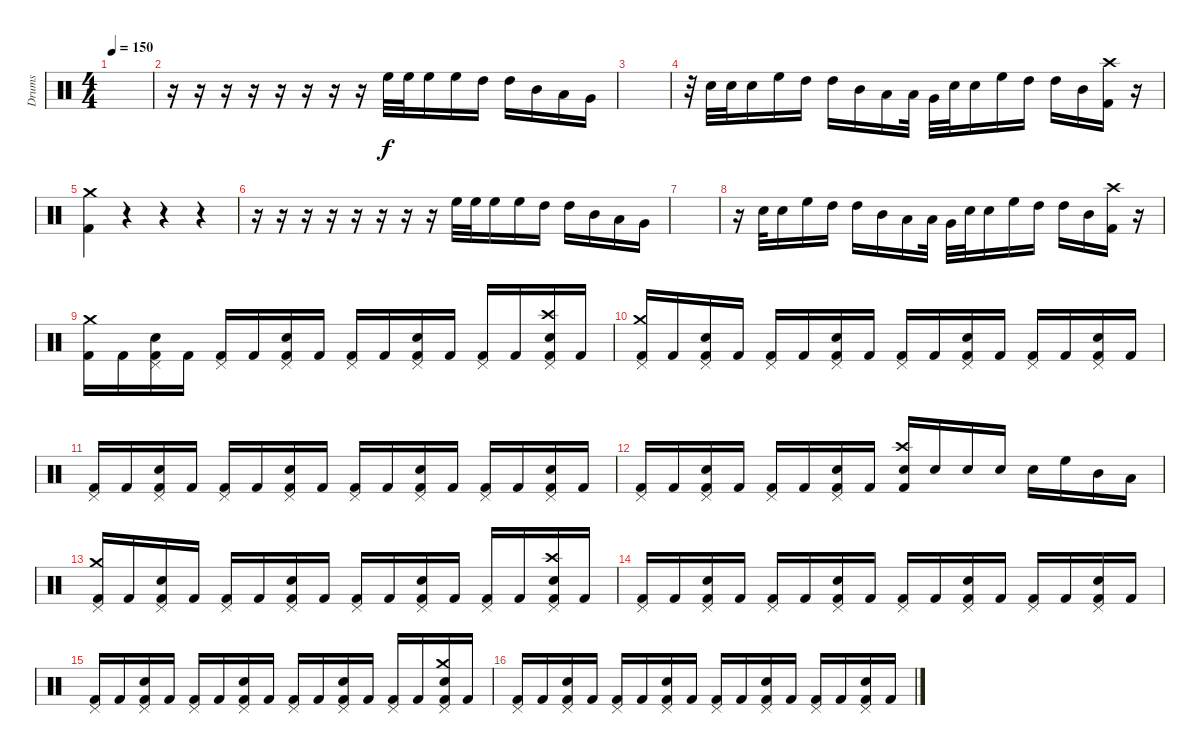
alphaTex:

\track ("Drums" "Drums") {instrument percussion}
\staff {score}
\articulation defaults
\ts (4 4)
\tempo 150
\clef neutral
\ks c
|
r.16 r.16 r.16 r.16 r.16 r.16 r.16 r.16 "High Floor Tom (hit)".32 "High Floor Tom (hit)".32 "High Floor Tom (hit)".16 "High Floor Tom (hit)".16 "High Tom (hit)".16 "High Tom (hit)".16 "Mid Tom (hit)".16 "Low Tom (hit)".16 "Very Low Tom (hit)".16 |
|
r.32 "Electric Snare (hit)".32 "Electric Snare (hit)".32 "Electric Snare (hit)".16 "High Floor Tom (hit)".16 "High Tom (hit)".16 "High Tom (hit)".16 "Mid Tom (hit)".16 "Low Tom (hit)".16 "Low Tom (hit)".32 "Very Low Tom (hit)".32 "Electric Snare (hit)".32 "Electric Snare (hit)".16 "High Floor Tom (hit)".16 "High Tom (hit)".16 "High Tom (hit)".16 "Mid Tom (hit)".16 ("Crash high (hit)" "Kick (hit) 2").16 r.16 |
("Crash medium (hit)" "Kick (hit) 2").4 r.4 r.4 r.4 |
r.16 r.16 r.16 r.16 r.16 r.16 r.16 r.16 "High Floor Tom (hit)".32 "High Floor Tom (hit)".32 "High Floor Tom (hit)".16 "High Floor Tom (hit)".16 "High Tom (hit)".16 "High Tom (hit)".16 "Mid Tom (hit)".16 "Low Tom (hit)".16 "Very Low Tom (hit)".16 |
|
r.16 "Electric Snare (hit)".32 "Electric Snare (hit)".16 "High Floor Tom (hit)".16 "High Tom (hit)".16 "High Tom (hit)".16 "Mid Tom (hit)".16 "Low Tom (hit)".16 "Low Tom (hit)".32 "Very Low Tom (hit)".32 "Electric Snare (hit)".32 "Electric Snare (hit)".16 "High Floor Tom (hit)".16 "High Tom (hit)".16 "High Tom (hit)".16 "Mid Tom (hit)".16 ("Crash high (hit)" "Kick (hit) 2").16 r.16 |
("Crash medium (hit)" "Kick (hit) 2").16 "Kick (hit) 2".16 ("Pedal Hi-Hat (hit)" "Kick (hit) 2" "Electric Snare (hit)").16 "Kick (hit) 2".16 ("Pedal Hi-Hat (hit)" "Kick (hit) 2").16 "Kick (hit) 2".16 ("Pedal Hi-Hat (hit)" "Kick (hit) 2" "Electric Snare (hit)").16 "Kick (hit) 2".16 ("Pedal Hi-Hat (hit)" "Kick (hit) 2").16 "Kick (hit) 2".16 ("Pedal Hi-Hat (hit)" "Kick (hit) 2" "Electric Snare (hit)").16 "Kick (hit) 2".16 ("Pedal Hi-Hat (hit)" "Kick (hit) 2").16 "Kick (hit) 2".16 ("Crash high (hit)" "Pedal Hi-Hat (hit)" "Kick (hit) 2" "Electric Snare (hit)").16 "Kick (hit) 2".16 |
("Crash medium (hit)" "Pedal Hi-Hat (hit)" "Kick (hit) 2").16 "Kick (hit) 2".16 ("Pedal Hi-Hat (hit)" "Kick (hit) 2" "Electric Snare (hit)").16 "Kick (hit) 2".16 ("Pedal Hi-Hat (hit)" "Kick (hit) 2").16 "Kick (hit) 2".16 ("Pedal Hi-Hat (hit)" "Kick (hit) 2" "Electric Snare (hit)").16 "Kick (hit) 2".16 ("Pedal Hi-Hat (hit)" "Kick (hit) 2").16 "Kick (hit) 2".16 ("Pedal Hi-Hat (hit)" "Kick (hit) 2" "Electric Snare (hit)").16 "Kick (hit) 2".16 ("Pedal Hi-Hat (hit)" "Kick (hit) 2").16 "Kick (hit) 2".16 ("Pedal Hi-Hat (hit)" "Kick (hit) 2" "Electric Snare (hit)").16 "Kick (hit) 2".16 |
("Pedal Hi-Hat (hit)" "Kick (hit) 2").16 "Kick (hit) 2".16 ("Pedal Hi-Hat (hit)" "Kick (hit) 2" "Electric Snare (hit)").16 "Kick (hit) 2".16 ("Pedal Hi-Hat (hit)" "Kick (hit) 2").16 "Kick (hit) 2".16 ("Pedal Hi-Hat (hit)" "Kick (hit) 2" "Electric Snare (hit)").16 "Kick (hit) 2".16 ("Pedal Hi-Hat (hit)" "Kick (hit) 2").16 "Kick (hit) 2".16 ("Pedal Hi-Hat (hit)" "Kick (hit) 2" "Electric Snare (hit)").16 "Kick (hit) 2".16 ("Pedal Hi-Hat (hit)" "Kick (hit) 2").16 "Kick (hit) 2".16 ("Pedal Hi-Hat (hit)" "Kick (hit) 2" "Electric Snare (hit)").16 "Kick (hit) 2".16 |
("Pedal Hi-Hat (hit)" "Kick (hit) 2").16 "Kick (hit) 2".16 ("Pedal Hi-Hat (hit)" "Kick (hit) 2" "Electric Snare (hit)").16 "Kick (hit) 2".16 ("Pedal Hi-Hat (hit)" "Kick (hit) 2").16 "Kick (hit) 2".16 ("Pedal Hi-Hat (hit)" "Kick (hit) 2" "Electric Snare (hit)").16 "Kick (hit) 2".16 ("Crash high (hit)" "Kick (hit) 2" "Electric Snare (hit)").16 "Electric Snare (hit)".16 "Electric Snare (hit)".16 "Electric Snare (hit)".16 "Electric Snare (hit)".16 "High Floor Tom (hit)".16 "Mid Tom (hit)".16 "Low Tom (hit)".16 |
("Crash medium (hit)" "Pedal Hi-Hat (hit)" "Kick (hit) 2").16 "Kick (hit) 2".16 ("Pedal Hi-Hat (hit)" "Kick (hit) 2" "Electric Snare (hit)").16 "Kick (hit) 2".16 ("Pedal Hi-Hat (hit)" "Kick (hit) 2").16 "Kick (hit) 2".16 ("Pedal Hi-Hat (hit)" "Kick (hit) 2" "Electric Snare (hit)").16 "Kick (hit) 2".16 ("Pedal Hi-Hat (hit)" "Kick (hit) 2").16 "Kick (hit) 2".16 ("Pedal Hi-Hat (hit)" "Kick (hit) 2" "Electric Snare (hit)").16 "Kick (hit) 2".16 ("Pedal Hi-Hat (hit)" "Kick (hit) 2").16 "Kick (hit) 2".16 ("Crash high (hit)" "Pedal Hi-Hat (hit)" "Kick (hit) 2" "Electric Snare (hit)").16 "Kick (hit) 2".16 |
("Pedal Hi-Hat (hit)" "Kick (hit) 2").16 "Kick (hit) 2".16 ("Pedal Hi-Hat (hit)" "Kick (hit) 2" "Electric Snare (hit)").16 "Kick (hit) 2".16 ("Pedal Hi-Hat (hit)" "Kick (hit) 2").16 "Kick (hit) 2".16 ("Pedal Hi-Hat (hit)" "Kick (hit) 2" "Electric Snare (hit)").16 "Kick (hit) 2".16 ("Pedal Hi-Hat (hit)" "Kick (hit) 2").16 "Kick (hit) 2".16 ("Pedal Hi-Hat (hit)" "Kick (hit) 2" "Electric Snare (hit)").16 "Kick (hit) 2".16 ("Pedal Hi-Hat (hit)" "Kick (hit) 2").16 "Kick (hit) 2".16 ("Pedal Hi-Hat (hit)" "Kick (hit) 2" "Electric Snare (hit)").16 "Kick (hit) 2".16 |
("Pedal Hi-Hat (hit)" "Kick (hit) 2").16 "Kick (hit) 2".16 ("Pedal Hi-Hat (hit)" "Kick (hit) 2" "Electric Snare (hit)").16 "Kick (hit) 2".16 ("Pedal Hi-Hat (hit)" "Kick (hit) 2").16 "Kick (hit) 2".16 ("Pedal Hi-Hat (hit)" "Kick (hit) 2" "Electric Snare (hit)").16 "Kick (hit) 2".16 ("Pedal Hi-Hat (hit)" "Kick (hit) 2").16 "Kick (hit) 2".16 ("Pedal Hi-Hat (hit)" "Kick (hit) 2" "Electric Snare (hit)").16 "Kick (hit) 2".16 ("Pedal Hi-Hat (hit)" "Kick (hit) 2").16 "Kick (hit) 2".16 ("Crash medium (hit)" "Pedal Hi-Hat (hit)" "Kick (hit) 2" "Electric Snare (hit)").16 "Kick (hit) 2".16 |
("Pedal Hi-Hat (hit)" "Kick (hit) 2").16 "Kick (hit) 2".16 ("Pedal Hi-Hat (hit)" "Kick (hit) 2" "Electric Snare (hit)").16 "Kick (hit) 2".16 ("Pedal Hi-Hat (hit)" "Kick (hit) 2").16 "Kick (hit) 2".16 ("Pedal Hi-Hat (hit)" "Kick (hit) 2" "Electric Snare (hit)").16 "Kick (hit) 2".16 ("Pedal Hi-Hat (hit)" "Kick (hit) 2").16 "Kick (hit) 2".16 ("Pedal Hi-Hat (hit)" "Kick (hit) 2" "Electric Snare (hit)").16 "Kick (hit) 2".16 ("Pedal Hi-Hat (hit)" "Kick (hit) 2").16 "Kick (hit) 2".16 ("Pedal Hi-Hat (hit)" "Kick (hit) 2" "Electric Snare (hit)").16 "Kick (hit) 2".16
